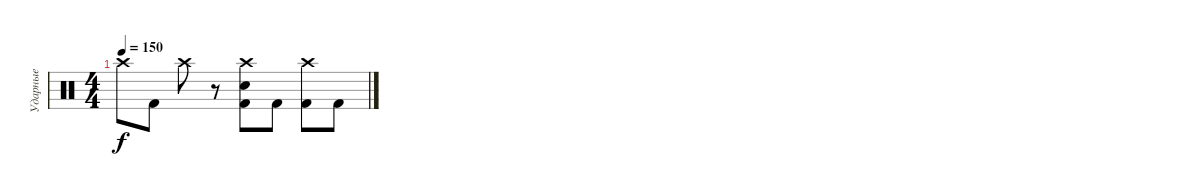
\track ("Ударные" "Ударные") {instrument percussion}
\staff {score}
\articulation defaults
\ts (4 4)
\tempo 150
\clef neutral
\ks c "Crash high (hit)".8{dy f} "Kick (hit) 2".8 "Crash high (hit)".8
r.8 ("Crash high (hit)" "Electric Snare (hit)" "Kick (hit) 2").8 "Kick (hit) 2".8 ("Crash high (hit)" "Kick (hit) 2").8 "Kick (hit) 2".8
